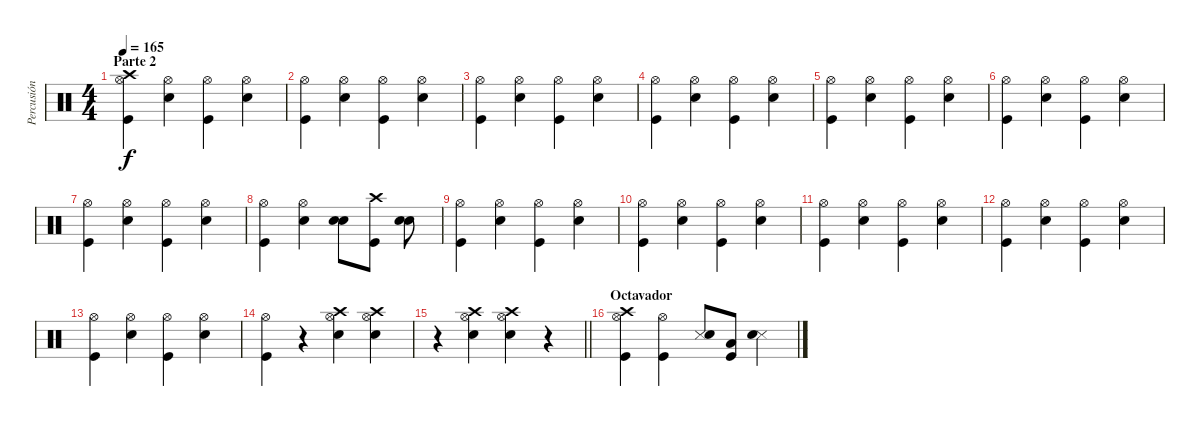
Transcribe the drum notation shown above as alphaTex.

\track ("Percusión" "Percusión") {instrument percussion}
\staff {score}
\articulation defaults
\ts (4 4)
\section ("" "Parte 2")
\tempo 165
\clef neutral
\ks c
("Crash high (hit)" "Hi-Hat (open)" "Kick (hit)").4{dy f} ("Hi-Hat (open)" "Snare (hit) 2").4 ("Hi-Hat (open)" "Kick (hit)").4 ("Hi-Hat (open)" "Snare (hit) 2").4 |
("Hi-Hat (open)" "Kick (hit)").4 ("Hi-Hat (open)" "Snare (hit) 2").4 ("Hi-Hat (open)" "Kick (hit)").4 ("Hi-Hat (open)" "Snare (hit) 2").4 |
("Hi-Hat (open)" "Kick (hit)").4 ("Hi-Hat (open)" "Snare (hit) 2").4 ("Hi-Hat (open)" "Kick (hit)").4 ("Hi-Hat (open)" "Snare (hit) 2").4 |
("Hi-Hat (open)" "Kick (hit)").4 ("Hi-Hat (open)" "Snare (hit) 2").4 ("Hi-Hat (open)" "Kick (hit)").4 ("Hi-Hat (open)" "Snare (hit) 2").4 |
("Hi-Hat (open)" "Kick (hit)").4 ("Hi-Hat (open)" "Snare (hit) 2").4 ("Hi-Hat (open)" "Kick (hit)").4 ("Hi-Hat (open)" "Snare (hit) 2").4 |
("Hi-Hat (open)" "Kick (hit)").4 ("Hi-Hat (open)" "Snare (hit) 2").4 ("Hi-Hat (open)" "Kick (hit)").4 ("Hi-Hat (open)" "Snare (hit) 2").4 |
("Hi-Hat (open)" "Kick (hit)").4 ("Hi-Hat (open)" "Snare (hit) 2").4 ("Hi-Hat (open)" "Kick (hit)").4 ("Hi-Hat (open)" "Snare (hit) 2").4 |
("Hi-Hat (open)" "Kick (hit)").4 ("Hi-Hat (open)" "Snare (hit) 2").4 ("Snare (hit) 2" "Snare (hit) 2").8 ("Crash high (hit)" "Kick (hit)").8 ("Snare (hit) 2" "Snare (hit) 2").8 |
("Hi-Hat (open)" "Kick (hit)").4 ("Hi-Hat (open)" "Snare (hit) 2").4 ("Hi-Hat (open)" "Kick (hit)").4 ("Hi-Hat (open)" "Snare (hit) 2").4 |
("Hi-Hat (open)" "Kick (hit)").4 ("Hi-Hat (open)" "Snare (hit) 2").4 ("Hi-Hat (open)" "Kick (hit)").4 ("Hi-Hat (open)" "Snare (hit) 2").4 |
("Hi-Hat (open)" "Kick (hit)").4 ("Hi-Hat (open)" "Snare (hit) 2").4 ("Hi-Hat (open)" "Kick (hit)").4 ("Hi-Hat (open)" "Snare (hit) 2").4 |
("Hi-Hat (open)" "Kick (hit)").4 ("Hi-Hat (open)" "Snare (hit) 2").4 ("Hi-Hat (open)" "Kick (hit)").4 ("Hi-Hat (open)" "Snare (hit) 2").4 |
("Hi-Hat (open)" "Kick (hit)").4 ("Hi-Hat (open)" "Snare (hit) 2").4 ("Hi-Hat (open)" "Kick (hit)").4 ("Hi-Hat (open)" "Snare (hit) 2").4 |
("Hi-Hat (open)" "Kick (hit)").4 r.4 ("Hi-Hat (open)" "Snare (hit) 2" "Crash high (hit)").4 ("Hi-Hat (open)" "Snare (hit) 2" "Crash high (hit)").4 |
\barLineRight lightlight
r.4 ("Hi-Hat (open)" "Snare (hit) 2" "Crash high (hit)").4 ("Hi-Hat (open)" "Snare (hit) 2" "Crash high (hit)").4 r.4 |
\section ("" "Octavador")
("Hi-Hat (open)" "Kick (hit)" "Crash high (hit)").4 ("Hi-Hat (open)" "Kick (hit)").4 ("Snare (side stick) 3" "Snare (hit) 2").8 ("Low Floor Tom (hit)" "Kick (hit)").8 ("Snare (side stick) 3" "Snare (hit) 2").4
